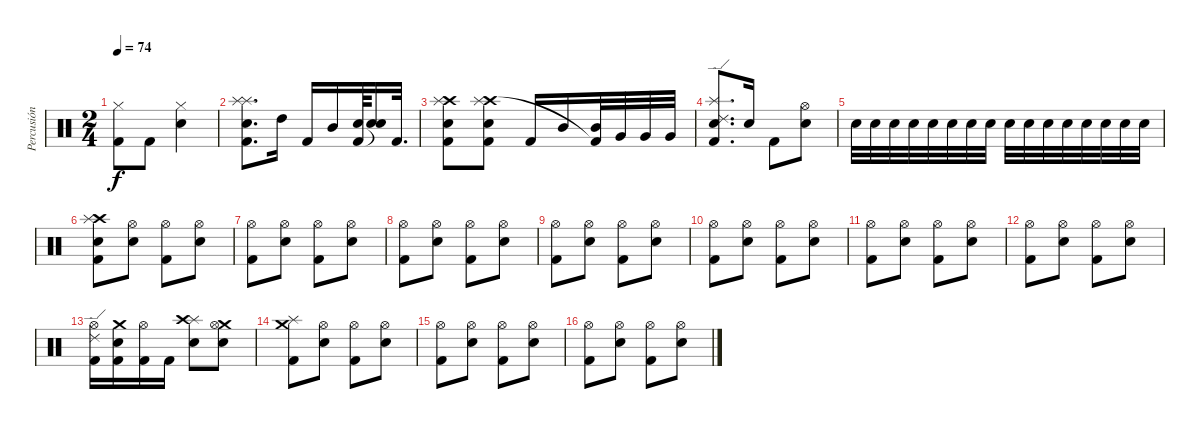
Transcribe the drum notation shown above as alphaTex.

\track ("Percusión" "Percusión") {instrument percussion}
\staff {score}
\articulation defaults
\ts (2 4)
\tempo 74
\clef neutral
\ks c
("Hi-Hat (closed)" "Kick (hit) 2").8{dy f} "Kick (hit) 2".8 ("Hi-Hat (closed)" "Electric Snare (hit)").4 |
("Splash (hit)" "Splash (hit)" "Electric Snare (hit)" "Kick (hit) 2").8{d} "High Tom (hit)".16 "Kick (hit) 2".16 "Mid Tom (hit)".16 ("Electric Snare (hit)" "Kick (hit) 2").64 ("Electric Snare (hit)" "Snare (hit)"{t}).16 "Kick (hit) 2".32{d} |
("Crash high (hit)" "Splash (hit)" "Electric Snare (hit)" "Kick (hit) 2").8 ("Crash high (hit)" "Splash (hit)" "Electric Snare (hit)" "Kick (hit) 2").8 "Kick (hit) 2".16 "Mid Tom (hit)".16 ("Mid Tom (hit)" "Kick (hit) 2"{t}).32 "Very Low Tom (hit)".32 "Very Low Tom (hit)".32 "Very Low Tom (hit)".32 |
("Ride (edge) 2" "Splash (hit)" "Electric Snare (hit)" "Kick (hit) 2").8{d} "Electric Snare (hit)".16 "Kick (hit) 2".8 ("Hi-Hat (open)" "Electric Snare (hit)").8 |
"Electric Snare (hit)".32 "Electric Snare (hit)".32 "Electric Snare (hit)".32 "Electric Snare (hit)".32 "Electric Snare (hit)".32 "Electric Snare (hit)".32 "Electric Snare (hit)".32 "Electric Snare (hit)".32 "Electric Snare (hit)".32 "Electric Snare (hit)".32 "Electric Snare (hit)".32 "Electric Snare (hit)".32 "Electric Snare (hit)".32 "Electric Snare (hit)".32 "Electric Snare (hit)".32 "Electric Snare (hit)".32 |
("Crash high (hit)" "Splash (hit)" "Electric Snare (hit)" "Kick (hit) 2").8 ("Hi-Hat (open)" "Electric Snare (hit)").8 ("Hi-Hat (open)" "Kick (hit) 2").8 ("Hi-Hat (open)" "Electric Snare (hit)").8 |
("Hi-Hat (open)" "Kick (hit) 2").8 ("Hi-Hat (open)" "Electric Snare (hit)").8 ("Hi-Hat (open)" "Kick (hit) 2").8 ("Hi-Hat (open)" "Electric Snare (hit)").8 |
("Hi-Hat (open)" "Kick (hit) 2").8 ("Hi-Hat (open)" "Electric Snare (hit)").8 ("Hi-Hat (open)" "Kick (hit) 2").8 ("Hi-Hat (open)" "Electric Snare (hit)").8 |
("Hi-Hat (open)" "Kick (hit) 2").8 ("Hi-Hat (open)" "Electric Snare (hit)").8 ("Hi-Hat (open)" "Kick (hit) 2").8 ("Hi-Hat (open)" "Electric Snare (hit)").8 |
("Hi-Hat (open)" "Kick (hit) 2").8 ("Hi-Hat (open)" "Electric Snare (hit)").8 ("Hi-Hat (open)" "Kick (hit) 2").8 ("Hi-Hat (open)" "Electric Snare (hit)").8 |
("Hi-Hat (open)" "Kick (hit) 2").8 ("Hi-Hat (open)" "Electric Snare (hit)").8 ("Hi-Hat (open)" "Kick (hit) 2").8 ("Hi-Hat (open)" "Electric Snare (hit)").8 |
("Hi-Hat (open)" "Kick (hit) 2").8 ("Hi-Hat (open)" "Electric Snare (hit)").8 ("Hi-Hat (open)" "Kick (hit) 2").8 ("Hi-Hat (open)" "Electric Snare (hit)").8 |
("Ride (edge) 2" "Hi-Hat (open)" "Kick (hit) 2").16 ("Crash medium (hit)" "Electric Snare (hit)" "Kick (hit) 2").16 ("Hi-Hat (open)" "Kick (hit) 2").16 "Kick (hit) 2".16 ("Splash (hit)" "Crash high (hit)" "Electric Snare (hit)").8 ("Crash medium (hit)" "Hi-Hat (open)" "Electric Snare (hit)").8 |
("Crash medium (hit)" "Splash (hit)" "Kick (hit) 2").8 ("Hi-Hat (open)" "Electric Snare (hit)").8 ("Hi-Hat (open)" "Kick (hit) 2").8 ("Hi-Hat (open)" "Electric Snare (hit)").8 |
("Hi-Hat (open)" "Kick (hit) 2").8 ("Hi-Hat (open)" "Electric Snare (hit)").8 ("Hi-Hat (open)" "Kick (hit) 2").8 ("Hi-Hat (open)" "Electric Snare (hit)").8 |
("Hi-Hat (open)" "Kick (hit) 2").8 ("Hi-Hat (open)" "Electric Snare (hit)").8 ("Hi-Hat (open)" "Kick (hit) 2").8 ("Hi-Hat (open)" "Electric Snare (hit)").8
